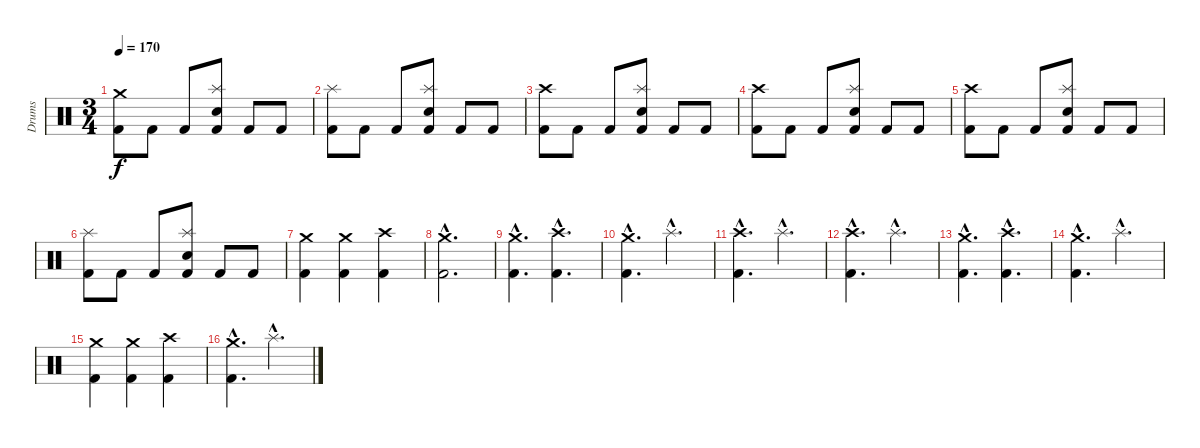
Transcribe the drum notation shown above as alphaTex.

\track ("Drums" "Drums") {instrument percussion}
\staff {score}
\articulation defaults
\ts (3 4)
\tempo 170
\clef neutral
\ks c
("Crash medium (hit)" "Kick (hit) 2").8{dy f} "Kick (hit) 2".8 "Kick (hit) 2".8 ("Splash (hit)" "Electric Snare (hit)" "Kick (hit) 2").8 "Kick (hit) 2".8 "Kick (hit) 2".8 |
("Splash (hit)" "Kick (hit) 2").8 "Kick (hit) 2".8 "Kick (hit) 2".8 ("Splash (hit)" "Electric Snare (hit)" "Kick (hit) 2").8 "Kick (hit) 2".8 "Kick (hit) 2".8 |
("Crash high (hit)" "Kick (hit) 2").8 "Kick (hit) 2".8 "Kick (hit) 2".8 ("Splash (hit)" "Electric Snare (hit)" "Kick (hit) 2").8 "Kick (hit) 2".8 "Kick (hit) 2".8 |
("Crash high (hit)" "Kick (hit) 2").8 "Kick (hit) 2".8 "Kick (hit) 2".8 ("Splash (hit)" "Electric Snare (hit)" "Kick (hit) 2").8 "Kick (hit) 2".8 "Kick (hit) 2".8 |
("Crash high (hit)" "Kick (hit) 2").8 "Kick (hit) 2".8 "Kick (hit) 2".8 ("Splash (hit)" "Electric Snare (hit)" "Kick (hit) 2").8 "Kick (hit) 2".8 "Kick (hit) 2".8 |
("Splash (hit)" "Kick (hit) 2").8 "Kick (hit) 2".8 "Kick (hit) 2".8 ("Splash (hit)" "Electric Snare (hit)" "Kick (hit) 2").8 "Kick (hit) 2".8 "Kick (hit) 2".8 |
("Crash medium (hit)" "Kick (hit) 2").4 ("Crash medium (hit)" "Kick (hit) 2").4 ("Crash high (hit)" "Kick (hit) 2").4 |
("Crash medium (hit)"{hac} "Kick (hit) 2"{hac}).2{d} |
("Crash medium (hit)"{hac} "Kick (hit) 2"{hac}).4{d} ("Crash high (hit)"{hac} "Kick (hit) 2"{hac}).4{d} |
("Crash medium (hit)"{hac} "Kick (hit) 2"{hac}).4{d} "Splash (hit)"{hac}.4{d} |
("Crash high (hit)"{hac} "Kick (hit) 2"{hac}).4{d} "Splash (hit)"{hac}.4{d} |
("Crash high (hit)"{hac} "Kick (hit) 2"{hac}).4{d} "Splash (hit)"{hac}.4{d} |
("Crash medium (hit)"{hac} "Kick (hit) 2"{hac}).4{d} ("Crash high (hit)"{hac} "Kick (hit) 2"{hac}).4{d} |
("Crash medium (hit)"{hac} "Kick (hit) 2"{hac}).4{d} "Splash (hit)"{hac}.4{d} |
("Crash medium (hit)" "Kick (hit) 2").4 ("Crash medium (hit)" "Kick (hit) 2").4 ("Crash high (hit)" "Kick (hit) 2").4 |
("Crash medium (hit)"{hac} "Kick (hit) 2"{hac}).4{d} "Splash (hit)"{hac}.4{d}
